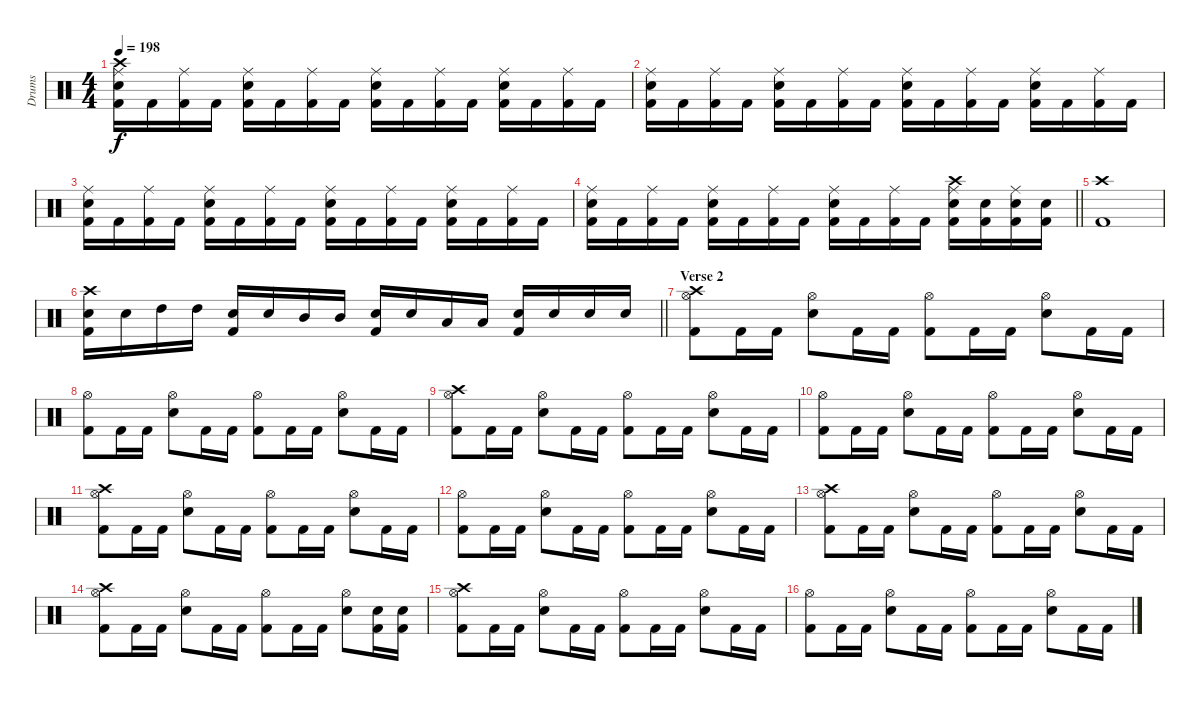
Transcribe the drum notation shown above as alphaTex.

\track ("Drums" "Drums") {instrument percussion}
\staff {score}
\articulation defaults
\ts (4 4)
\tempo 198
\clef neutral
\ks c
("Crash high (hit)" "Ride (middle)" "Snare (hit) 2" "Kick (hit) 2").16{dy f} "Kick (hit) 2".16 ("Ride (middle)" "Kick (hit) 2").16 "Kick (hit) 2".16 ("Ride (middle)" "Snare (hit) 2" "Kick (hit) 2").16 "Kick (hit) 2".16 ("Ride (middle)" "Kick (hit) 2").16 "Kick (hit) 2".16 ("Ride (middle)" "Snare (hit) 2" "Kick (hit) 2").16 "Kick (hit) 2".16 ("Ride (middle)" "Kick (hit) 2").16 "Kick (hit) 2".16 ("Ride (middle)" "Snare (hit) 2" "Kick (hit) 2").16 "Kick (hit) 2".16 ("Ride (middle)" "Kick (hit) 2").16 "Kick (hit) 2".16 |
("Ride (middle)" "Snare (hit) 2" "Kick (hit) 2").16 "Kick (hit) 2".16 ("Ride (middle)" "Kick (hit) 2").16 "Kick (hit) 2".16 ("Ride (middle)" "Snare (hit) 2" "Kick (hit) 2").16 "Kick (hit) 2".16 ("Ride (middle)" "Kick (hit) 2").16 "Kick (hit) 2".16 ("Ride (middle)" "Snare (hit) 2" "Kick (hit) 2").16 "Kick (hit) 2".16 ("Ride (middle)" "Kick (hit) 2").16 "Kick (hit) 2".16 ("Ride (middle)" "Snare (hit) 2" "Kick (hit) 2").16 "Kick (hit) 2".16 ("Ride (middle)" "Kick (hit) 2").16 "Kick (hit) 2".16 |
("Ride (middle)" "Snare (hit) 2" "Kick (hit) 2").16 "Kick (hit) 2".16 ("Ride (middle)" "Kick (hit) 2").16 "Kick (hit) 2".16 ("Ride (middle)" "Snare (hit) 2" "Kick (hit) 2").16 "Kick (hit) 2".16 ("Ride (middle)" "Kick (hit) 2").16 "Kick (hit) 2".16 ("Ride (middle)" "Snare (hit) 2" "Kick (hit) 2").16 "Kick (hit) 2".16 ("Ride (middle)" "Kick (hit) 2").16 "Kick (hit) 2".16 ("Ride (middle)" "Snare (hit) 2" "Kick (hit) 2").16 "Kick (hit) 2".16 ("Ride (middle)" "Kick (hit) 2").16 "Kick (hit) 2".16 |
\barLineRight lightlight
("Ride (middle)" "Snare (hit) 2" "Kick (hit) 2").16 "Kick (hit) 2".16 ("Ride (middle)" "Kick (hit) 2").16 "Kick (hit) 2".16 ("Ride (middle)" "Snare (hit) 2" "Kick (hit) 2").16 "Kick (hit) 2".16 ("Ride (middle)" "Kick (hit) 2").16 "Kick (hit) 2".16 ("Ride (middle)" "Snare (hit) 2" "Kick (hit) 2").16 "Kick (hit) 2".16 ("Ride (middle)" "Kick (hit) 2").16 "Kick (hit) 2".16 ("Crash high (hit)" "Ride (middle)" "Snare (hit) 2" "Kick (hit) 2").16 ("Snare (hit) 2" "Kick (hit) 2").16 ("Ride (middle)" "Snare (hit) 2" "Kick (hit) 2").16 ("Snare (hit) 2" "Kick (hit) 2").16 |
("Crash high (hit)" "Kick (hit) 2").1 |
\barLineRight lightlight
("Crash high (hit)" "Snare (hit) 2" "Kick (hit) 2").16 "Snare (hit) 2".16 "High Tom (hit)".16 "High Tom (hit)".16 ("Snare (hit) 2" "Kick (hit) 2").16 "Snare (hit) 2".16 "Mid Tom (hit)".16 "Mid Tom (hit)".16 ("Snare (hit) 2" "Kick (hit) 2").16 "Snare (hit) 2".16 "Low Tom (hit)".16 "Low Tom (hit)".16 ("Snare (hit) 2" "Kick (hit) 2").16 "Snare (hit) 2".16 "Snare (hit) 2".16 "Snare (hit) 2".16 |
\section ("" "Verse 2")
("Crash high (hit)" "Hi-Hat (open)" "Kick (hit) 2").8 "Kick (hit) 2".16 "Kick (hit) 2".16 ("Hi-Hat (open)" "Snare (hit) 2").8 "Kick (hit) 2".16 "Kick (hit) 2".16 ("Hi-Hat (open)" "Kick (hit) 2").8 "Kick (hit) 2".16 "Kick (hit) 2".16 ("Hi-Hat (open)" "Snare (hit) 2").8 "Kick (hit) 2".16 "Kick (hit) 2".16 |
("Hi-Hat (open)" "Kick (hit) 2").8 "Kick (hit) 2".16 "Kick (hit) 2".16 ("Hi-Hat (open)" "Snare (hit) 2").8 "Kick (hit) 2".16 "Kick (hit) 2".16 ("Hi-Hat (open)" "Kick (hit) 2").8 "Kick (hit) 2".16 "Kick (hit) 2".16 ("Hi-Hat (open)" "Snare (hit) 2").8 "Kick (hit) 2".16 "Kick (hit) 2".16 |
("Crash high (hit)" "Hi-Hat (open)" "Kick (hit) 2").8 "Kick (hit) 2".16 "Kick (hit) 2".16 ("Hi-Hat (open)" "Snare (hit) 2").8 "Kick (hit) 2".16 "Kick (hit) 2".16 ("Hi-Hat (open)" "Kick (hit) 2").8 "Kick (hit) 2".16 "Kick (hit) 2".16 ("Hi-Hat (open)" "Snare (hit) 2").8 "Kick (hit) 2".16 "Kick (hit) 2".16 |
("Hi-Hat (open)" "Kick (hit) 2").8 "Kick (hit) 2".16 "Kick (hit) 2".16 ("Hi-Hat (open)" "Snare (hit) 2").8 "Kick (hit) 2".16 "Kick (hit) 2".16 ("Hi-Hat (open)" "Kick (hit) 2").8 "Kick (hit) 2".16 "Kick (hit) 2".16 ("Hi-Hat (open)" "Snare (hit) 2").8 "Kick (hit) 2".16 "Kick (hit) 2".16 |
("Crash high (hit)" "Hi-Hat (open)" "Kick (hit) 2").8 "Kick (hit) 2".16 "Kick (hit) 2".16 ("Hi-Hat (open)" "Snare (hit) 2").8 "Kick (hit) 2".16 "Kick (hit) 2".16 ("Hi-Hat (open)" "Kick (hit) 2").8 "Kick (hit) 2".16 "Kick (hit) 2".16 ("Hi-Hat (open)" "Snare (hit) 2").8 "Kick (hit) 2".16 "Kick (hit) 2".16 |
("Hi-Hat (open)" "Kick (hit) 2").8 "Kick (hit) 2".16 "Kick (hit) 2".16 ("Hi-Hat (open)" "Snare (hit) 2").8 "Kick (hit) 2".16 "Kick (hit) 2".16 ("Hi-Hat (open)" "Kick (hit) 2").8 "Kick (hit) 2".16 "Kick (hit) 2".16 ("Hi-Hat (open)" "Snare (hit) 2").8 "Kick (hit) 2".16 "Kick (hit) 2".16 |
("Crash high (hit)" "Hi-Hat (open)" "Kick (hit) 2").8 "Kick (hit) 2".16 "Kick (hit) 2".16 ("Hi-Hat (open)" "Snare (hit) 2").8 "Kick (hit) 2".16 "Kick (hit) 2".16 ("Hi-Hat (open)" "Kick (hit) 2").8 "Kick (hit) 2".16 "Kick (hit) 2".16 ("Hi-Hat (open)" "Snare (hit) 2").8 "Kick (hit) 2".16 "Kick (hit) 2".16 |
("Crash high (hit)" "Hi-Hat (open)" "Kick (hit) 2").8 "Kick (hit) 2".16 "Kick (hit) 2".16 ("Hi-Hat (open)" "Snare (hit) 2").8 "Kick (hit) 2".16 "Kick (hit) 2".16 ("Hi-Hat (open)" "Kick (hit) 2").8 "Kick (hit) 2".16 "Kick (hit) 2".16 ("Hi-Hat (open)" "Snare (hit) 2").8 ("Snare (hit) 2" "Kick (hit) 2").16 ("Snare (hit) 2" "Kick (hit) 2").16 |
("Crash high (hit)" "Hi-Hat (open)" "Kick (hit) 2").8 "Kick (hit) 2".16 "Kick (hit) 2".16 ("Hi-Hat (open)" "Snare (hit) 2").8 "Kick (hit) 2".16 "Kick (hit) 2".16 ("Hi-Hat (open)" "Kick (hit) 2").8 "Kick (hit) 2".16 "Kick (hit) 2".16 ("Hi-Hat (open)" "Snare (hit) 2").8 "Kick (hit) 2".16 "Kick (hit) 2".16 |
("Hi-Hat (open)" "Kick (hit) 2").8 "Kick (hit) 2".16 "Kick (hit) 2".16 ("Hi-Hat (open)" "Snare (hit) 2").8 "Kick (hit) 2".16 "Kick (hit) 2".16 ("Hi-Hat (open)" "Kick (hit) 2").8 "Kick (hit) 2".16 "Kick (hit) 2".16 ("Hi-Hat (open)" "Snare (hit) 2").8 "Kick (hit) 2".16 "Kick (hit) 2".16
